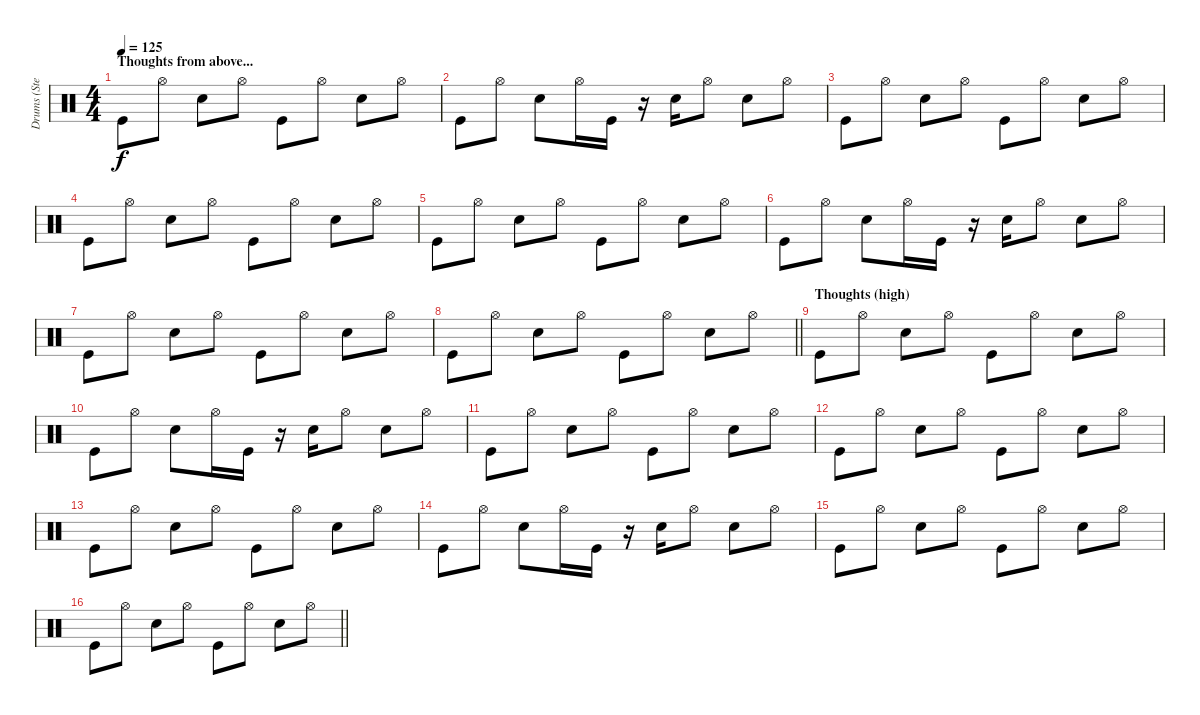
\track ("Drums (Stephen Morris)" "Drums (Ste") {instrument percussion}
\staff {score}
\articulation defaults
\ts (4 4)
\section ("" "Thoughts from above...")
\tempo 125
\clef neutral
\ks c "Kick (hit)".8{dy f} "Hi-Hat (open)".8 "Electric Snare (hit)".8 "Hi-Hat (open)".8 "Kick (hit)".8 "Hi-Hat (open)".8 "Electric Snare (hit)".8 "Hi-Hat (open)".8
|
"Kick (hit)".8 "Hi-Hat (open)".8 "Electric Snare (hit)".8 "Hi-Hat (open)".16 "Kick (hit)".16 r.16 "Electric Snare (hit)".16 "Hi-Hat (open)".8 "Electric Snare (hit)".8 "Hi-Hat (open)".8 |
"Kick (hit)".8 "Hi-Hat (open)".8 "Electric Snare (hit)".8 "Hi-Hat (open)".8 "Kick (hit)".8 "Hi-Hat (open)".8 "Electric Snare (hit)".8 "Hi-Hat (open)".8 |
"Kick (hit)".8 "Hi-Hat (open)".8 "Electric Snare (hit)".8 "Hi-Hat (open)".8 "Kick (hit)".8 "Hi-Hat (open)".8 "Electric Snare (hit)".8 "Hi-Hat (open)".8 |
"Kick (hit)".8 "Hi-Hat (open)".8 "Electric Snare (hit)".8 "Hi-Hat (open)".8 "Kick (hit)".8 "Hi-Hat (open)".8 "Electric Snare (hit)".8 "Hi-Hat (open)".8 |
"Kick (hit)".8 "Hi-Hat (open)".8 "Electric Snare (hit)".8 "Hi-Hat (open)".16 "Kick (hit)".16 r.16 "Electric Snare (hit)".16 "Hi-Hat (open)".8 "Electric Snare (hit)".8 "Hi-Hat (open)".8 |
"Kick (hit)".8 "Hi-Hat (open)".8 "Electric Snare (hit)".8 "Hi-Hat (open)".8 "Kick (hit)".8 "Hi-Hat (open)".8 "Electric Snare (hit)".8 "Hi-Hat (open)".8 |
\barLineRight lightlight "Kick (hit)".8 "Hi-Hat (open)".8 "Electric Snare (hit)".8 "Hi-Hat (open)".8 "Kick (hit)".8 "Hi-Hat (open)".8 "Electric Snare (hit)".8 "Hi-Hat (open)".8
|
\section ("" "Thoughts (high)")
"Kick (hit)".8 "Hi-Hat (open)".8 "Electric Snare (hit)".8 "Hi-Hat (open)".8 "Kick (hit)".8 "Hi-Hat (open)".8 "Electric Snare (hit)".8 "Hi-Hat (open)".8 |
"Kick (hit)".8 "Hi-Hat (open)".8 "Electric Snare (hit)".8 "Hi-Hat (open)".16 "Kick (hit)".16 r.16 "Electric Snare (hit)".16 "Hi-Hat (open)".8 "Electric Snare (hit)".8 "Hi-Hat (open)".8 |
"Kick (hit)".8 "Hi-Hat (open)".8 "Electric Snare (hit)".8 "Hi-Hat (open)".8 "Kick (hit)".8 "Hi-Hat (open)".8 "Electric Snare (hit)".8 "Hi-Hat (open)".8 |
"Kick (hit)".8 "Hi-Hat (open)".8 "Electric Snare (hit)".8 "Hi-Hat (open)".8 "Kick (hit)".8 "Hi-Hat (open)".8 "Electric Snare (hit)".8 "Hi-Hat (open)".8 |
"Kick (hit)".8 "Hi-Hat (open)".8 "Electric Snare (hit)".8 "Hi-Hat (open)".8 "Kick (hit)".8 "Hi-Hat (open)".8 "Electric Snare (hit)".8 "Hi-Hat (open)".8 |
"Kick (hit)".8 "Hi-Hat (open)".8 "Electric Snare (hit)".8 "Hi-Hat (open)".16 "Kick (hit)".16 r.16 "Electric Snare (hit)".16 "Hi-Hat (open)".8 "Electric Snare (hit)".8 "Hi-Hat (open)".8 |
"Kick (hit)".8 "Hi-Hat (open)".8 "Electric Snare (hit)".8 "Hi-Hat (open)".8 "Kick (hit)".8 "Hi-Hat (open)".8 "Electric Snare (hit)".8 "Hi-Hat (open)".8 |
\barLineRight lightlight "Kick (hit)".8 "Hi-Hat (open)".8 "Electric Snare (hit)".8 "Hi-Hat (open)".8 "Kick (hit)".8 "Hi-Hat (open)".8 "Electric Snare (hit)".8 "Hi-Hat (open)".8
